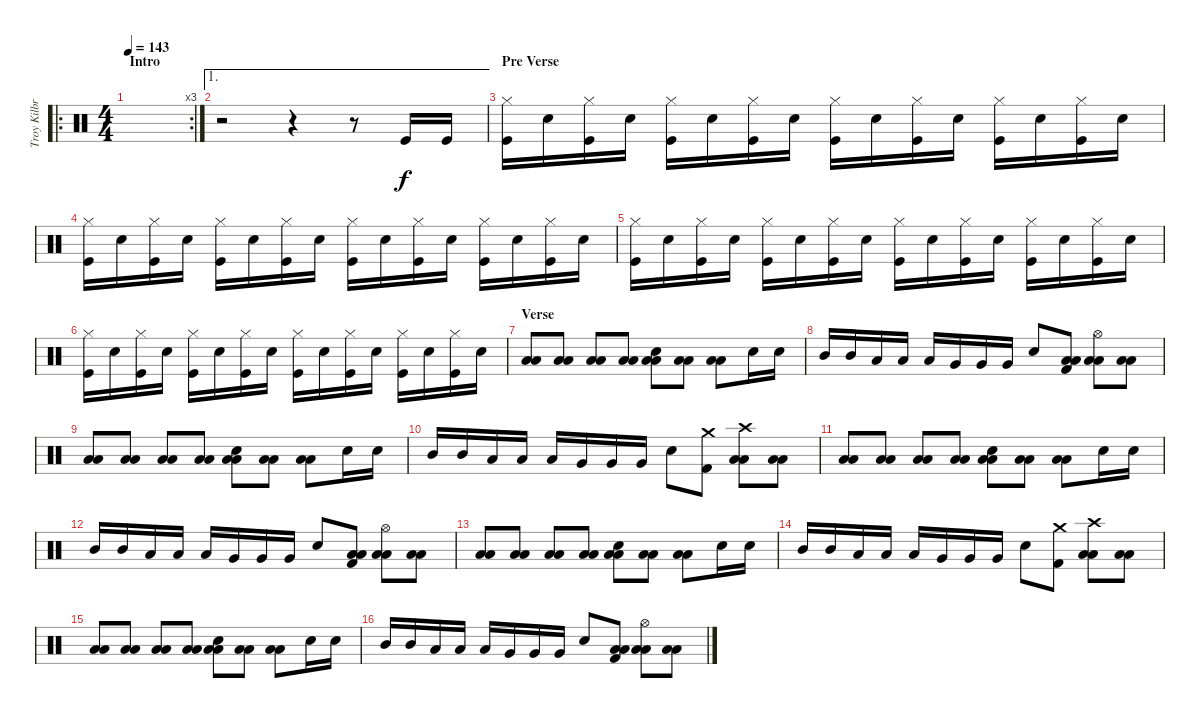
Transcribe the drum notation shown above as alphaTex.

\track ("Troy Kilbride" "Troy Kilbr") {instrument percussion}
\staff {score}
\articulation defaults
\ro
\rc 3
\ts (4 4)
\section ("" "Intro")
\tempo 143
\clef neutral
\ks c
|
\ae 1
r.2 r.4 r.8 "Kick (hit)".16 "Kick (hit)".16 |
\section ("" "Pre Verse")
("Hi-Hat (closed)" "Kick (hit)").16 "Electric Snare (hit)".16 ("Hi-Hat (closed)" "Kick (hit)").16 "Electric Snare (hit)".16 ("Hi-Hat (closed)" "Kick (hit)").16 "Electric Snare (hit)".16 ("Hi-Hat (closed)" "Kick (hit)").16 "Electric Snare (hit)".16 ("Hi-Hat (closed)" "Kick (hit)").16 "Electric Snare (hit)".16 ("Hi-Hat (closed)" "Kick (hit)").16 "Electric Snare (hit)".16 ("Hi-Hat (closed)" "Kick (hit)").16 "Electric Snare (hit)".16 ("Hi-Hat (closed)" "Kick (hit)").16 "Electric Snare (hit)".16 |
("Hi-Hat (closed)" "Kick (hit)").16 "Electric Snare (hit)".16 ("Hi-Hat (closed)" "Kick (hit)").16 "Electric Snare (hit)".16 ("Hi-Hat (closed)" "Kick (hit)").16 "Electric Snare (hit)".16 ("Hi-Hat (closed)" "Kick (hit)").16 "Electric Snare (hit)".16 ("Hi-Hat (closed)" "Kick (hit)").16 "Electric Snare (hit)".16 ("Hi-Hat (closed)" "Kick (hit)").16 "Electric Snare (hit)".16 ("Hi-Hat (closed)" "Kick (hit)").16 "Electric Snare (hit)".16 ("Hi-Hat (closed)" "Kick (hit)").16 "Electric Snare (hit)".16 |
("Hi-Hat (closed)" "Kick (hit)").16 "Electric Snare (hit)".16 ("Hi-Hat (closed)" "Kick (hit)").16 "Electric Snare (hit)".16 ("Hi-Hat (closed)" "Kick (hit)").16 "Electric Snare (hit)".16 ("Hi-Hat (closed)" "Kick (hit)").16 "Electric Snare (hit)".16 ("Hi-Hat (closed)" "Kick (hit)").16 "Electric Snare (hit)".16 ("Hi-Hat (closed)" "Kick (hit)").16 "Electric Snare (hit)".16 ("Hi-Hat (closed)" "Kick (hit)").16 "Electric Snare (hit)".16 ("Hi-Hat (closed)" "Kick (hit)").16 "Electric Snare (hit)".16 |
("Hi-Hat (closed)" "Kick (hit)").16 "Electric Snare (hit)".16 ("Hi-Hat (closed)" "Kick (hit)").16 "Electric Snare (hit)".16 ("Hi-Hat (closed)" "Kick (hit)").16 "Electric Snare (hit)".16 ("Hi-Hat (closed)" "Kick (hit)").16 "Electric Snare (hit)".16 ("Hi-Hat (closed)" "Kick (hit)").16 "Electric Snare (hit)".16 ("Hi-Hat (closed)" "Kick (hit)").16 "Electric Snare (hit)".16 ("Hi-Hat (closed)" "Kick (hit)").16 "Electric Snare (hit)".16 ("Hi-Hat (closed)" "Kick (hit)").16 "Electric Snare (hit)".16 |
\section ("" "Verse")
("Low Floor Tom (hit)" "Low Floor Tom (hit)").8 ("Low Floor Tom (hit)" "Low Floor Tom (hit)").8 ("Low Floor Tom (hit)" "Low Floor Tom (hit)").8 ("Low Floor Tom (hit)" "Low Floor Tom (hit)").8 ("Low Floor Tom (hit)" "Snare (hit) 2" "Low Floor Tom (hit)").8 ("Low Floor Tom (hit)" "Low Floor Tom (hit)").8 ("Low Floor Tom (hit)" "Low Floor Tom (hit)").8 "Snare (hit) 2".16 "Snare (hit) 2".16 |
"Mid Tom (hit)".16 "Mid Tom (hit)".16 "Low Tom (hit)".16 "Low Tom (hit)".16 "Low Tom (hit)".16 "Very Low Tom (hit)".16 "Very Low Tom (hit)".16 "Very Low Tom (hit)".16 "Snare (hit) 2".8 ("Low Floor Tom (hit)" "Low Floor Tom (hit)" "Kick (hit) 2").8 ("Low Floor Tom (hit)" "Low Floor Tom (hit)" "Hi-Hat (open)").8 ("Low Floor Tom (hit)" "Low Floor Tom (hit)").8 |
("Low Floor Tom (hit)" "Low Floor Tom (hit)").8 ("Low Floor Tom (hit)" "Low Floor Tom (hit)").8 ("Low Floor Tom (hit)" "Low Floor Tom (hit)").8 ("Low Floor Tom (hit)" "Low Floor Tom (hit)").8 ("Low Floor Tom (hit)" "Snare (hit) 2" "Low Floor Tom (hit)").8 ("Low Floor Tom (hit)" "Low Floor Tom (hit)").8 ("Low Floor Tom (hit)" "Low Floor Tom (hit)").8 "Snare (hit) 2".16 "Snare (hit) 2".16 |
"Mid Tom (hit)".16 "Mid Tom (hit)".16 "Low Tom (hit)".16 "Low Tom (hit)".16 "Low Tom (hit)".16 "Very Low Tom (hit)".16 "Very Low Tom (hit)".16 "Very Low Tom (hit)".16 "Snare (hit) 2".8 ("Crash medium (hit)" "Kick (hit) 2").8 ("Low Floor Tom (hit)" "Low Floor Tom (hit)" "Crash high (hit)").8 ("Low Floor Tom (hit)" "Low Floor Tom (hit)").8 |
("Low Floor Tom (hit)" "Low Floor Tom (hit)").8 ("Low Floor Tom (hit)" "Low Floor Tom (hit)").8 ("Low Floor Tom (hit)" "Low Floor Tom (hit)").8 ("Low Floor Tom (hit)" "Low Floor Tom (hit)").8 ("Low Floor Tom (hit)" "Snare (hit) 2" "Low Floor Tom (hit)").8 ("Low Floor Tom (hit)" "Low Floor Tom (hit)").8 ("Low Floor Tom (hit)" "Low Floor Tom (hit)").8 "Snare (hit) 2".16 "Snare (hit) 2".16 |
"Mid Tom (hit)".16 "Mid Tom (hit)".16 "Low Tom (hit)".16 "Low Tom (hit)".16 "Low Tom (hit)".16 "Very Low Tom (hit)".16 "Very Low Tom (hit)".16 "Very Low Tom (hit)".16 "Snare (hit) 2".8 ("Low Floor Tom (hit)" "Low Floor Tom (hit)" "Kick (hit) 2").8 ("Low Floor Tom (hit)" "Low Floor Tom (hit)" "Hi-Hat (open)").8 ("Low Floor Tom (hit)" "Low Floor Tom (hit)").8 |
("Low Floor Tom (hit)" "Low Floor Tom (hit)").8 ("Low Floor Tom (hit)" "Low Floor Tom (hit)").8 ("Low Floor Tom (hit)" "Low Floor Tom (hit)").8 ("Low Floor Tom (hit)" "Low Floor Tom (hit)").8 ("Low Floor Tom (hit)" "Snare (hit) 2" "Low Floor Tom (hit)").8 ("Low Floor Tom (hit)" "Low Floor Tom (hit)").8 ("Low Floor Tom (hit)" "Low Floor Tom (hit)").8 "Snare (hit) 2".16 "Snare (hit) 2".16 |
"Mid Tom (hit)".16 "Mid Tom (hit)".16 "Low Tom (hit)".16 "Low Tom (hit)".16 "Low Tom (hit)".16 "Very Low Tom (hit)".16 "Very Low Tom (hit)".16 "Very Low Tom (hit)".16 "Snare (hit) 2".8 ("Crash medium (hit)" "Kick (hit) 2").8 ("Low Floor Tom (hit)" "Low Floor Tom (hit)" "Crash high (hit)").8 ("Low Floor Tom (hit)" "Low Floor Tom (hit)").8 |
("Low Floor Tom (hit)" "Low Floor Tom (hit)").8 ("Low Floor Tom (hit)" "Low Floor Tom (hit)").8 ("Low Floor Tom (hit)" "Low Floor Tom (hit)").8 ("Low Floor Tom (hit)" "Low Floor Tom (hit)").8 ("Low Floor Tom (hit)" "Snare (hit) 2" "Low Floor Tom (hit)").8 ("Low Floor Tom (hit)" "Low Floor Tom (hit)").8 ("Low Floor Tom (hit)" "Low Floor Tom (hit)").8 "Snare (hit) 2".16 "Snare (hit) 2".16 |
"Mid Tom (hit)".16 "Mid Tom (hit)".16 "Low Tom (hit)".16 "Low Tom (hit)".16 "Low Tom (hit)".16 "Very Low Tom (hit)".16 "Very Low Tom (hit)".16 "Very Low Tom (hit)".16 "Snare (hit) 2".8 ("Low Floor Tom (hit)" "Low Floor Tom (hit)" "Kick (hit) 2").8 ("Low Floor Tom (hit)" "Low Floor Tom (hit)" "Hi-Hat (open)").8 ("Low Floor Tom (hit)" "Low Floor Tom (hit)").8
